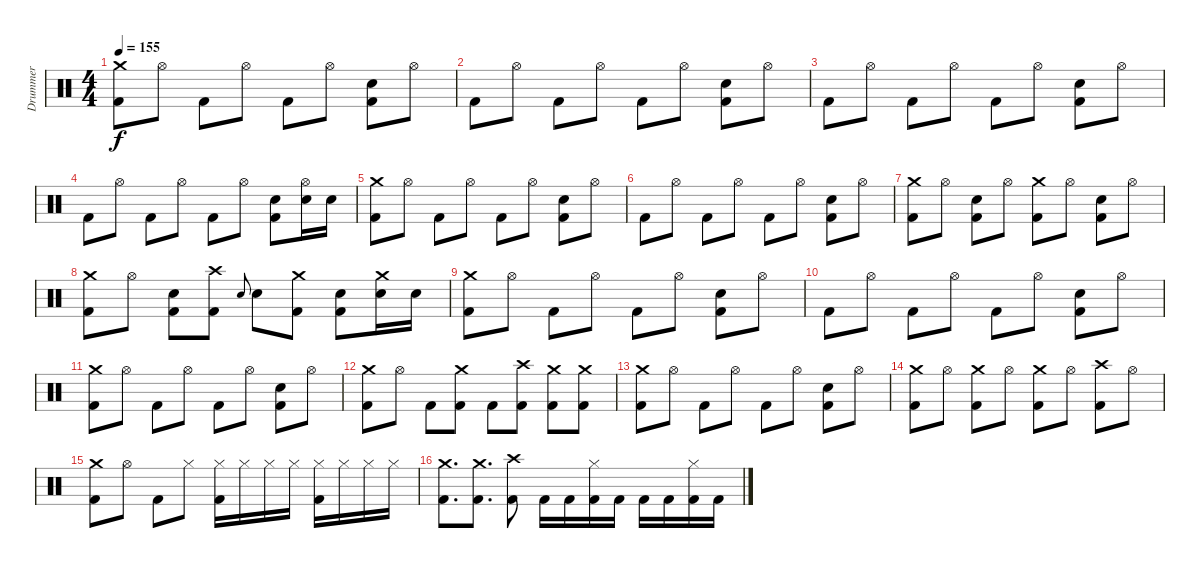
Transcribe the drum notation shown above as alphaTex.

\track ("Drummer" "Drummer") {instrument percussion}
\staff {score}
\articulation defaults
\ts (4 4)
\tempo 155
\clef neutral
\ks c
("Crash medium (hit)" "Kick (hit) 2").8{dy f} "Hi-Hat (open)".8 "Kick (hit) 2".8 "Hi-Hat (open)".8 "Kick (hit) 2".8 "Hi-Hat (open)".8 ("Electric Snare (hit)" "Kick (hit) 2").8 "Hi-Hat (open)".8 |
"Kick (hit) 2".8 "Hi-Hat (open)".8 "Kick (hit) 2".8 "Hi-Hat (open)".8 "Kick (hit) 2".8 "Hi-Hat (open)".8 ("Electric Snare (hit)" "Kick (hit) 2").8 "Hi-Hat (open)".8 |
"Kick (hit) 2".8 "Hi-Hat (open)".8 "Kick (hit) 2".8 "Hi-Hat (open)".8 "Kick (hit) 2".8 "Hi-Hat (open)".8 ("Electric Snare (hit)" "Kick (hit) 2").8 "Hi-Hat (open)".8 |
"Kick (hit) 2".8 "Hi-Hat (open)".8 "Kick (hit) 2".8 "Hi-Hat (open)".8 "Kick (hit) 2".8 "Hi-Hat (open)".8 ("Electric Snare (hit)" "Kick (hit) 2").8 ("Hi-Hat (open)" "Electric Snare (hit)").16 "Electric Snare (hit)".16 |
("Crash medium (hit)" "Kick (hit) 2").8 "Hi-Hat (open)".8 "Kick (hit) 2".8 "Hi-Hat (open)".8 "Kick (hit) 2".8 "Hi-Hat (open)".8 ("Electric Snare (hit)" "Kick (hit) 2").8 "Hi-Hat (open)".8 |
"Kick (hit) 2".8 "Hi-Hat (open)".8 "Kick (hit) 2".8 "Hi-Hat (open)".8 "Kick (hit) 2".8 "Hi-Hat (open)".8 ("Electric Snare (hit)" "Kick (hit) 2").8 "Hi-Hat (open)".8 |
("Crash medium (hit)" "Kick (hit) 2").8 "Hi-Hat (open)".8 ("Electric Snare (hit)" "Kick (hit) 2").8 "Hi-Hat (open)".8 ("Crash medium (hit)" "Kick (hit) 2").8 "Hi-Hat (open)".8 ("Electric Snare (hit)" "Kick (hit) 2").8 "Hi-Hat (open)".8 |
("Crash medium (hit)" "Kick (hit) 2").8 "Hi-Hat (open)".8 ("Electric Snare (hit)" "Kick (hit) 2").8 ("Crash high (hit)" "Kick (hit) 2").8 "Electric Snare (hit)".8{gr onbeat} "Electric Snare (hit)".8 ("Crash medium (hit)" "Kick (hit) 2").8 ("Electric Snare (hit)" "Kick (hit) 2").8 ("Crash medium (hit)" "Electric Snare (hit)").16 "Electric Snare (hit)".16 |
("Crash medium (hit)" "Kick (hit) 2").8 "Hi-Hat (open)".8 "Kick (hit) 2".8 "Hi-Hat (open)".8 "Kick (hit) 2".8 "Hi-Hat (open)".8 ("Electric Snare (hit)" "Kick (hit) 2").8 "Hi-Hat (open)".8 |
"Kick (hit) 2".8 "Hi-Hat (open)".8 "Kick (hit) 2".8 "Hi-Hat (open)".8 "Kick (hit) 2".8 "Hi-Hat (open)".8 ("Electric Snare (hit)" "Kick (hit) 2").8 "Hi-Hat (open)".8 |
("Crash medium (hit)" "Kick (hit) 2").8 "Hi-Hat (open)".8 "Kick (hit) 2".8 "Hi-Hat (open)".8 "Kick (hit) 2".8 "Hi-Hat (open)".8 ("Electric Snare (hit)" "Kick (hit) 2").8 "Hi-Hat (open)".8 |
("Crash medium (hit)" "Kick (hit) 2").8 "Hi-Hat (open)".8 "Kick (hit) 2".8 ("Crash medium (hit)" "Kick (hit) 2").8 "Kick (hit) 2".8 ("Crash high (hit)" "Kick (hit) 2").8 ("Crash medium (hit)" "Kick (hit) 2").8 ("Crash medium (hit)" "Kick (hit) 2").8 |
("Crash medium (hit)" "Kick (hit) 2").8 "Hi-Hat (open)".8 "Kick (hit) 2".8 "Hi-Hat (open)".8 "Kick (hit) 2".8 "Hi-Hat (open)".8 ("Electric Snare (hit)" "Kick (hit) 2").8 "Hi-Hat (open)".8 |
("Crash medium (hit)" "Kick (hit) 2").8 "Hi-Hat (open)".8 ("Crash medium (hit)" "Kick (hit) 2").8 "Hi-Hat (open)".8 ("Crash medium (hit)" "Kick (hit) 2").8 "Hi-Hat (open)".8 ("Crash high (hit)" "Kick (hit) 2").8 "Hi-Hat (open)".8 |
("Crash medium (hit)" "Kick (hit) 2").8 "Hi-Hat (open)".8 "Kick (hit) 2".8 "Hi-Hat (closed)".8 ("Hi-Hat (closed)" "Kick (hit) 2").16 "Hi-Hat (closed)".16 "Hi-Hat (closed)".16 "Hi-Hat (closed)".16 ("Hi-Hat (closed)" "Kick (hit) 2").16 "Hi-Hat (closed)".16 "Hi-Hat (closed)".16 "Hi-Hat (closed)".16 |
("Crash medium (hit)" "Kick (hit) 2").8{d} ("Crash medium (hit)" "Kick (hit) 2").8{d} ("Crash high (hit)" "Kick (hit) 2").8 "Kick (hit) 2".16 "Kick (hit) 2".16 ("Hi-Hat (closed)" "Kick (hit) 2").16 "Kick (hit) 2".16 "Kick (hit) 2".16 "Kick (hit) 2".16 ("Hi-Hat (closed)" "Kick (hit) 2").16 "Kick (hit) 2".16
